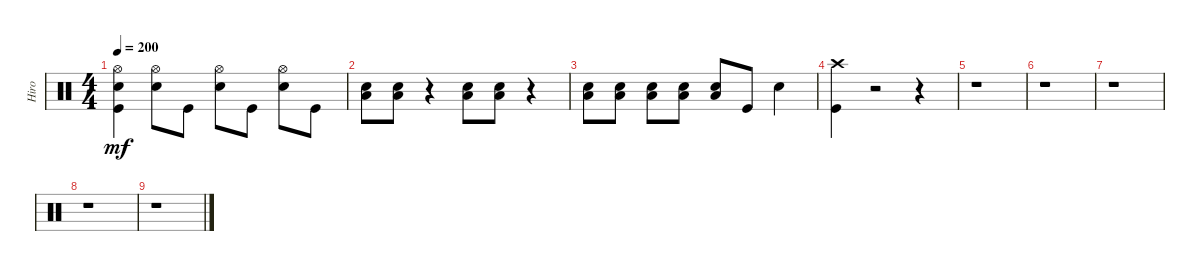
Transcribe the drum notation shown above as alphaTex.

\track ("Hiro" "Hiro") {instrument percussion}
\staff {score}
\articulation defaults
\ts (4 4)
\tempo 200
\clef neutral
\ks c
("Kick (hit)" "Electric Snare (hit)" "Hi-Hat (open)").4{dy mf} ("Electric Snare (hit)" "Hi-Hat (open)").8 "Kick (hit)".8 ("Electric Snare (hit)" "Hi-Hat (open)").8 "Kick (hit)".8 ("Electric Snare (hit)" "Hi-Hat (open)").8 "Kick (hit)".8 |
("Low Tom (hit)" "Electric Snare (hit)").8 ("Low Tom (hit)" "Electric Snare (hit)").8 r.4 ("Low Tom (hit)" "Electric Snare (hit)").8 ("Low Tom (hit)" "Electric Snare (hit)").8 r.4 |
("Low Tom (hit)" "Electric Snare (hit)").8 ("Low Tom (hit)" "Electric Snare (hit)").8 ("Low Tom (hit)" "Electric Snare (hit)").8 ("Electric Snare (hit)" "Low Tom (hit)").8 ("Low Tom (hit)" "Electric Snare (hit)").8 "Kick (hit)".8 "Electric Snare (hit)".4 |
("Kick (hit)" "Crash high (hit)").4 r.2 r.4 |
r.1 |
r.1 |
r.1 |
r.1 |
r.1
